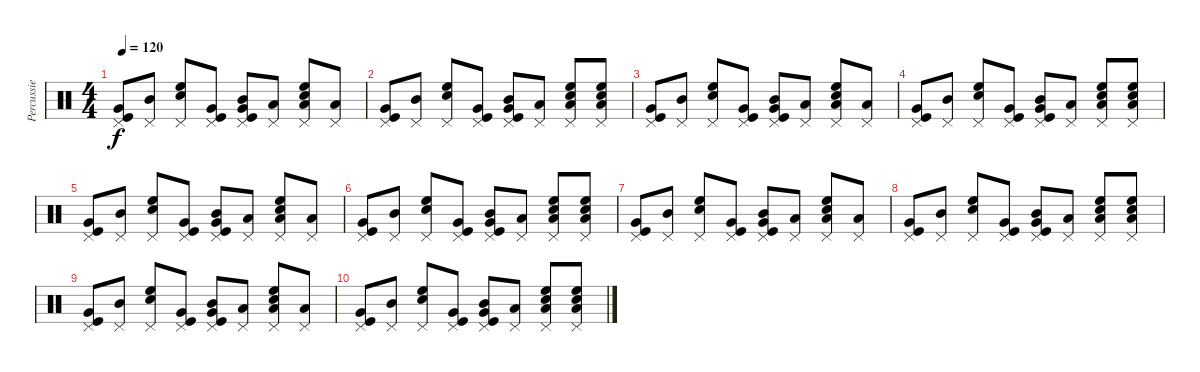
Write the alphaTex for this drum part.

\track ("Percussie" "Percussie") {instrument percussion}
\staff {score}
\articulation defaults
\ts (4 4)
\tempo 120
\clef neutral
\ks c
("Pedal Hi-Hat (hit)" "Very Low Tom (hit)" "Kick (hit)").8{dy f} ("Pedal Hi-Hat (hit)" "Mid Tom (hit)").8 ("Pedal Hi-Hat (hit)" "High Floor Tom (hit)" "Snare (hit) 2").8 ("Pedal Hi-Hat (hit)" "Very Low Tom (hit)" "Kick (hit)").8 ("Pedal Hi-Hat (hit)" "Mid Tom (hit)" "Very Low Tom (hit)" "Kick (hit)").8 ("Pedal Hi-Hat (hit)" "Low Tom (hit)").8 ("Pedal Hi-Hat (hit)" "High Floor Tom (hit)" "Snare (hit) 2" "Low Tom (hit)").8 ("Pedal Hi-Hat (hit)" "Low Tom (hit)").8 |
("Pedal Hi-Hat (hit)" "Very Low Tom (hit)" "Kick (hit)").8 ("Pedal Hi-Hat (hit)" "Mid Tom (hit)").8 ("Pedal Hi-Hat (hit)" "High Floor Tom (hit)" "Snare (hit) 2").8 ("Pedal Hi-Hat (hit)" "Very Low Tom (hit)" "Kick (hit)").8 ("Pedal Hi-Hat (hit)" "Mid Tom (hit)" "Very Low Tom (hit)" "Kick (hit)").8 ("Pedal Hi-Hat (hit)" "Low Tom (hit)").8 ("Pedal Hi-Hat (hit)" "High Floor Tom (hit)" "Snare (hit) 2" "Low Tom (hit)").8 ("Pedal Hi-Hat (hit)" "High Floor Tom (hit)" "Snare (hit) 2" "Low Tom (hit)").8 |
("Pedal Hi-Hat (hit)" "Very Low Tom (hit)" "Kick (hit)").8 ("Pedal Hi-Hat (hit)" "Mid Tom (hit)").8 ("Pedal Hi-Hat (hit)" "High Floor Tom (hit)" "Snare (hit) 2").8 ("Pedal Hi-Hat (hit)" "Very Low Tom (hit)" "Kick (hit)").8 ("Pedal Hi-Hat (hit)" "Mid Tom (hit)" "Very Low Tom (hit)" "Kick (hit)").8 ("Pedal Hi-Hat (hit)" "Low Tom (hit)").8 ("Pedal Hi-Hat (hit)" "High Floor Tom (hit)" "Snare (hit) 2" "Low Tom (hit)").8 ("Pedal Hi-Hat (hit)" "Low Tom (hit)").8 |
("Pedal Hi-Hat (hit)" "Very Low Tom (hit)" "Kick (hit)").8 ("Pedal Hi-Hat (hit)" "Mid Tom (hit)").8 ("Pedal Hi-Hat (hit)" "High Floor Tom (hit)" "Snare (hit) 2").8 ("Pedal Hi-Hat (hit)" "Very Low Tom (hit)" "Kick (hit)").8 ("Pedal Hi-Hat (hit)" "Mid Tom (hit)" "Very Low Tom (hit)" "Kick (hit)").8 ("Pedal Hi-Hat (hit)" "Low Tom (hit)").8 ("Pedal Hi-Hat (hit)" "High Floor Tom (hit)" "Snare (hit) 2" "Low Tom (hit)").8 ("Pedal Hi-Hat (hit)" "High Floor Tom (hit)" "Snare (hit) 2" "Low Tom (hit)").8 |
("Pedal Hi-Hat (hit)" "Very Low Tom (hit)" "Kick (hit)").8 ("Pedal Hi-Hat (hit)" "Mid Tom (hit)").8 ("Pedal Hi-Hat (hit)" "High Floor Tom (hit)" "Snare (hit) 2").8 ("Pedal Hi-Hat (hit)" "Very Low Tom (hit)" "Kick (hit)").8 ("Pedal Hi-Hat (hit)" "Mid Tom (hit)" "Very Low Tom (hit)" "Kick (hit)").8 ("Pedal Hi-Hat (hit)" "Low Tom (hit)").8 ("Pedal Hi-Hat (hit)" "High Floor Tom (hit)" "Snare (hit) 2" "Low Tom (hit)").8 ("Pedal Hi-Hat (hit)" "Low Tom (hit)").8 |
("Pedal Hi-Hat (hit)" "Very Low Tom (hit)" "Kick (hit)").8 ("Pedal Hi-Hat (hit)" "Mid Tom (hit)").8 ("Pedal Hi-Hat (hit)" "High Floor Tom (hit)" "Snare (hit) 2").8 ("Pedal Hi-Hat (hit)" "Very Low Tom (hit)" "Kick (hit)").8 ("Pedal Hi-Hat (hit)" "Mid Tom (hit)" "Very Low Tom (hit)" "Kick (hit)").8 ("Pedal Hi-Hat (hit)" "Low Tom (hit)").8 ("Pedal Hi-Hat (hit)" "High Floor Tom (hit)" "Snare (hit) 2" "Low Tom (hit)").8 ("Pedal Hi-Hat (hit)" "High Floor Tom (hit)" "Snare (hit) 2" "Low Tom (hit)").8 |
("Pedal Hi-Hat (hit)" "Very Low Tom (hit)" "Kick (hit)").8 ("Pedal Hi-Hat (hit)" "Mid Tom (hit)").8 ("Pedal Hi-Hat (hit)" "High Floor Tom (hit)" "Snare (hit) 2").8 ("Pedal Hi-Hat (hit)" "Very Low Tom (hit)" "Kick (hit)").8 ("Pedal Hi-Hat (hit)" "Mid Tom (hit)" "Very Low Tom (hit)" "Kick (hit)").8 ("Pedal Hi-Hat (hit)" "Low Tom (hit)").8 ("Pedal Hi-Hat (hit)" "High Floor Tom (hit)" "Snare (hit) 2" "Low Tom (hit)").8 ("Pedal Hi-Hat (hit)" "Low Tom (hit)").8 |
("Pedal Hi-Hat (hit)" "Very Low Tom (hit)" "Kick (hit)").8 ("Pedal Hi-Hat (hit)" "Mid Tom (hit)").8 ("Pedal Hi-Hat (hit)" "High Floor Tom (hit)" "Snare (hit) 2").8 ("Pedal Hi-Hat (hit)" "Very Low Tom (hit)" "Kick (hit)").8 ("Pedal Hi-Hat (hit)" "Mid Tom (hit)" "Very Low Tom (hit)" "Kick (hit)").8 ("Pedal Hi-Hat (hit)" "Low Tom (hit)").8 ("Pedal Hi-Hat (hit)" "High Floor Tom (hit)" "Snare (hit) 2" "Low Tom (hit)").8 ("Pedal Hi-Hat (hit)" "High Floor Tom (hit)" "Snare (hit) 2" "Low Tom (hit)").8 |
("Pedal Hi-Hat (hit)" "Very Low Tom (hit)" "Kick (hit)").8 ("Pedal Hi-Hat (hit)" "Mid Tom (hit)").8 ("Pedal Hi-Hat (hit)" "High Floor Tom (hit)" "Snare (hit) 2").8 ("Pedal Hi-Hat (hit)" "Very Low Tom (hit)" "Kick (hit)").8 ("Pedal Hi-Hat (hit)" "Mid Tom (hit)" "Very Low Tom (hit)" "Kick (hit)").8 ("Pedal Hi-Hat (hit)" "Low Tom (hit)").8 ("Pedal Hi-Hat (hit)" "High Floor Tom (hit)" "Snare (hit) 2" "Low Tom (hit)").8 ("Pedal Hi-Hat (hit)" "Low Tom (hit)").8 |
("Pedal Hi-Hat (hit)" "Very Low Tom (hit)" "Kick (hit)").8 ("Pedal Hi-Hat (hit)" "Mid Tom (hit)").8 ("Pedal Hi-Hat (hit)" "High Floor Tom (hit)" "Snare (hit) 2").8 ("Pedal Hi-Hat (hit)" "Very Low Tom (hit)" "Kick (hit)").8 ("Pedal Hi-Hat (hit)" "Mid Tom (hit)" "Very Low Tom (hit)" "Kick (hit)").8 ("Pedal Hi-Hat (hit)" "Low Tom (hit)").8 ("Pedal Hi-Hat (hit)" "High Floor Tom (hit)" "Snare (hit) 2" "Low Tom (hit)").8 ("Pedal Hi-Hat (hit)" "High Floor Tom (hit)" "Snare (hit) 2" "Low Tom (hit)").8
